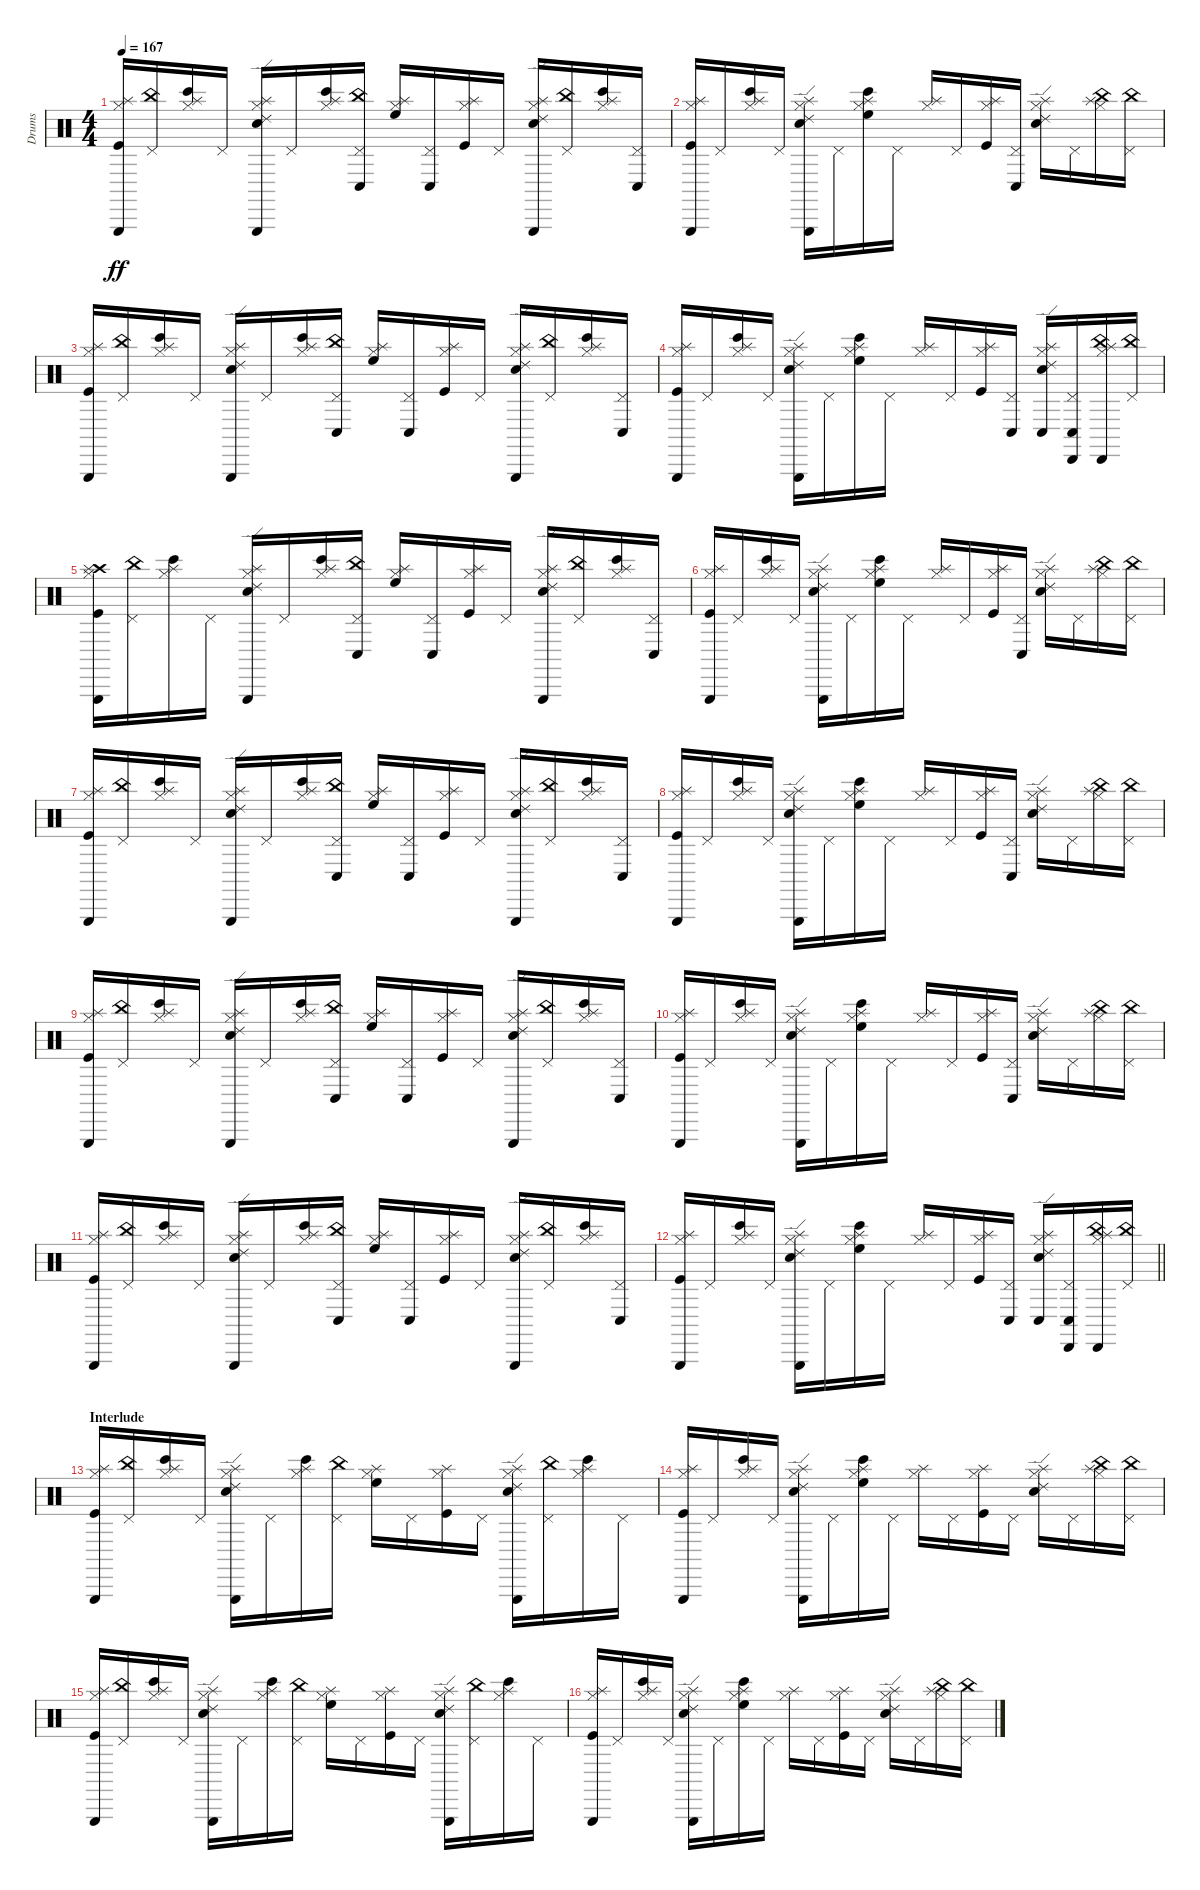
\track ("Drums" "Drums") {instrument percussion}
\staff {score}
\articulation defaults
\ts (4 4)
\tempo 167
\clef neutral
\ks c
("Kick (hit)" "Hi-Hat (closed)" "Splash (hit)" "Triangle (hit)").16{dy ff} ("Pedal Hi-Hat (hit)" "China (hit)").16 ("Hi-Hat (closed)" "Splash (hit)" "Bongo High (hit)").16 "Pedal Hi-Hat (hit)".16 ("Electric Snare (hit)" "Hi-Hat (closed)" "Splash (hit)" "Ride (edge) 2" "Triangle (hit)").16 "Pedal Hi-Hat (hit)".16 ("Hi-Hat (closed)" "Splash (hit)" "Bongo High (hit)").16 ("Pedal Hi-Hat (hit)" "China (hit)" "Conga low (hit)").16 ("Hi-Hat (closed)" "High Floor Tom (hit)" "Splash (hit)").16 ("Pedal Hi-Hat (hit)" "Conga low (hit)").16 ("Kick (hit)" "Hi-Hat (closed)" "Splash (hit)").16 "Pedal Hi-Hat (hit)".16 ("Electric Snare (hit)" "Hi-Hat (closed)" "Splash (hit)" "Ride (edge) 2" "Triangle (hit)").16 ("Pedal Hi-Hat (hit)" "China (hit)").16 ("Hi-Hat (closed)" "Splash (hit)" "Bongo High (hit)").16 ("Pedal Hi-Hat (hit)" "Conga low (hit)").16 |
("Kick (hit)" "Hi-Hat (closed)" "Splash (hit)" "Triangle (hit)").16 "Pedal Hi-Hat (hit)".16 ("Hi-Hat (closed)" "Splash (hit)" "Bongo High (hit)").16 "Pedal Hi-Hat (hit)".16 ("Electric Snare (hit)" "Hi-Hat (closed)" "Splash (hit)" "Ride (edge) 2" "Triangle (hit)").16 "Pedal Hi-Hat (hit)".16 ("Hi-Hat (closed)" "High Floor Tom (hit)" "Splash (hit)" "Bongo High (hit)").16 "Pedal Hi-Hat (hit)".16 ("Hi-Hat (closed)" "Splash (hit)").16 "Pedal Hi-Hat (hit)".16 ("Kick (hit)" "Hi-Hat (closed)" "Splash (hit)").16 ("Pedal Hi-Hat (hit)" "Conga low (hit)").16 ("Electric Snare (hit)" "Hi-Hat (closed)" "Splash (hit)" "Ride (edge) 2").16 "Pedal Hi-Hat (hit)".16 ("Hi-Hat (closed)" "China (hit)" "Splash (hit)").16 ("Pedal Hi-Hat (hit)" "China (hit)").16 |
("Kick (hit)" "Hi-Hat (closed)" "Splash (hit)" "Triangle (hit)").16 ("Pedal Hi-Hat (hit)" "China (hit)").16 ("Hi-Hat (closed)" "Splash (hit)" "Bongo High (hit)").16 "Pedal Hi-Hat (hit)".16 ("Electric Snare (hit)" "Hi-Hat (closed)" "Splash (hit)" "Ride (edge) 2" "Triangle (hit)").16 "Pedal Hi-Hat (hit)".16 ("Hi-Hat (closed)" "Splash (hit)" "Bongo High (hit)").16 ("Pedal Hi-Hat (hit)" "China (hit)" "Conga low (hit)").16 ("Hi-Hat (closed)" "High Floor Tom (hit)" "Splash (hit)").16 ("Pedal Hi-Hat (hit)" "Conga low (hit)").16 ("Kick (hit)" "Hi-Hat (closed)" "Splash (hit)").16 "Pedal Hi-Hat (hit)".16 ("Electric Snare (hit)" "Hi-Hat (closed)" "Splash (hit)" "Ride (edge) 2" "Triangle (hit)").16 ("Pedal Hi-Hat (hit)" "China (hit)").16 ("Hi-Hat (closed)" "Splash (hit)" "Bongo High (hit)").16 ("Pedal Hi-Hat (hit)" "Conga low (hit)").16 |
("Kick (hit)" "Hi-Hat (closed)" "Splash (hit)" "Triangle (hit)").16 "Pedal Hi-Hat (hit)".16 ("Hi-Hat (closed)" "Splash (hit)" "Bongo High (hit)").16 "Pedal Hi-Hat (hit)".16 ("Electric Snare (hit)" "Hi-Hat (closed)" "Splash (hit)" "Ride (edge) 2" "Triangle (hit)").16 "Pedal Hi-Hat (hit)".16 ("Hi-Hat (closed)" "High Floor Tom (hit)" "Splash (hit)" "Bongo High (hit)").16 "Pedal Hi-Hat (hit)".16 ("Hi-Hat (closed)" "Splash (hit)").16 "Pedal Hi-Hat (hit)".16 ("Kick (hit)" "Hi-Hat (closed)" "Splash (hit)").16 ("Pedal Hi-Hat (hit)" "Conga low (hit)").16 ("Electric Snare (hit)" "Hi-Hat (closed)" "Splash (hit)" "Ride (edge) 2" "Conga low (hit)").16 ("Pedal Hi-Hat (hit)" "Conga low (hit)" "Cabasa (hit)").16 ("Hi-Hat (closed)" "China (hit)" "Splash (hit)" "Cabasa (hit)").16 ("Pedal Hi-Hat (hit)" "China (hit)").16 |
("Kick (hit)" "Hi-Hat (closed)" "Crash high (hit)" "Splash (hit)" "Triangle (hit)").16 ("Pedal Hi-Hat (hit)" "China (hit)").16 ("Hi-Hat (closed)" "Splash (hit)" "Bongo High (hit)").16 "Pedal Hi-Hat (hit)".16 ("Electric Snare (hit)" "Hi-Hat (closed)" "Splash (hit)" "Ride (edge) 2" "Triangle (hit)").16 "Pedal Hi-Hat (hit)".16 ("Hi-Hat (closed)" "Splash (hit)" "Bongo High (hit)").16 ("Pedal Hi-Hat (hit)" "China (hit)" "Conga low (hit)").16 ("Hi-Hat (closed)" "High Floor Tom (hit)" "Splash (hit)").16 ("Pedal Hi-Hat (hit)" "Conga low (hit)").16 ("Kick (hit)" "Hi-Hat (closed)" "Splash (hit)").16 "Pedal Hi-Hat (hit)".16 ("Electric Snare (hit)" "Hi-Hat (closed)" "Splash (hit)" "Ride (edge) 2" "Triangle (hit)").16 ("Pedal Hi-Hat (hit)" "China (hit)").16 ("Hi-Hat (closed)" "Splash (hit)" "Bongo High (hit)").16 ("Pedal Hi-Hat (hit)" "Conga low (hit)").16 |
("Kick (hit)" "Hi-Hat (closed)" "Splash (hit)" "Triangle (hit)").16 "Pedal Hi-Hat (hit)".16 ("Hi-Hat (closed)" "Splash (hit)" "Bongo High (hit)").16 "Pedal Hi-Hat (hit)".16 ("Electric Snare (hit)" "Hi-Hat (closed)" "Splash (hit)" "Ride (edge) 2" "Triangle (hit)").16 "Pedal Hi-Hat (hit)".16 ("Hi-Hat (closed)" "High Floor Tom (hit)" "Splash (hit)" "Bongo High (hit)").16 "Pedal Hi-Hat (hit)".16 ("Hi-Hat (closed)" "Splash (hit)").16 "Pedal Hi-Hat (hit)".16 ("Kick (hit)" "Hi-Hat (closed)" "Splash (hit)").16 ("Pedal Hi-Hat (hit)" "Conga low (hit)").16 ("Electric Snare (hit)" "Hi-Hat (closed)" "Splash (hit)" "Ride (edge) 2").16 "Pedal Hi-Hat (hit)".16 ("Hi-Hat (closed)" "China (hit)" "Splash (hit)").16 ("Pedal Hi-Hat (hit)" "China (hit)").16 |
("Kick (hit)" "Hi-Hat (closed)" "Splash (hit)" "Triangle (hit)").16 ("Pedal Hi-Hat (hit)" "China (hit)").16 ("Hi-Hat (closed)" "Splash (hit)" "Bongo High (hit)").16 "Pedal Hi-Hat (hit)".16 ("Electric Snare (hit)" "Hi-Hat (closed)" "Splash (hit)" "Ride (edge) 2" "Triangle (hit)").16 "Pedal Hi-Hat (hit)".16 ("Hi-Hat (closed)" "Splash (hit)" "Bongo High (hit)").16 ("Pedal Hi-Hat (hit)" "China (hit)" "Conga low (hit)").16 ("Hi-Hat (closed)" "High Floor Tom (hit)" "Splash (hit)").16 ("Pedal Hi-Hat (hit)" "Conga low (hit)").16 ("Kick (hit)" "Hi-Hat (closed)" "Splash (hit)").16 "Pedal Hi-Hat (hit)".16 ("Electric Snare (hit)" "Hi-Hat (closed)" "Splash (hit)" "Ride (edge) 2" "Triangle (hit)").16 ("Pedal Hi-Hat (hit)" "China (hit)").16 ("Hi-Hat (closed)" "Splash (hit)" "Bongo High (hit)").16 ("Pedal Hi-Hat (hit)" "Conga low (hit)").16 |
("Kick (hit)" "Hi-Hat (closed)" "Splash (hit)" "Triangle (hit)").16 "Pedal Hi-Hat (hit)".16 ("Hi-Hat (closed)" "Splash (hit)" "Bongo High (hit)").16 "Pedal Hi-Hat (hit)".16 ("Electric Snare (hit)" "Hi-Hat (closed)" "Splash (hit)" "Ride (edge) 2" "Triangle (hit)").16 "Pedal Hi-Hat (hit)".16 ("Hi-Hat (closed)" "High Floor Tom (hit)" "Splash (hit)" "Bongo High (hit)").16 "Pedal Hi-Hat (hit)".16 ("Hi-Hat (closed)" "Splash (hit)").16 "Pedal Hi-Hat (hit)".16 ("Kick (hit)" "Hi-Hat (closed)" "Splash (hit)").16 ("Pedal Hi-Hat (hit)" "Conga low (hit)").16 ("Electric Snare (hit)" "Hi-Hat (closed)" "Splash (hit)" "Ride (edge) 2").16 "Pedal Hi-Hat (hit)".16 ("Hi-Hat (closed)" "China (hit)" "Splash (hit)").16 ("Pedal Hi-Hat (hit)" "China (hit)").16 |
("Kick (hit)" "Hi-Hat (closed)" "Splash (hit)" "Triangle (hit)").16 ("Pedal Hi-Hat (hit)" "China (hit)").16 ("Hi-Hat (closed)" "Splash (hit)" "Bongo High (hit)").16 "Pedal Hi-Hat (hit)".16 ("Electric Snare (hit)" "Hi-Hat (closed)" "Splash (hit)" "Ride (edge) 2" "Triangle (hit)").16 "Pedal Hi-Hat (hit)".16 ("Hi-Hat (closed)" "Splash (hit)" "Bongo High (hit)").16 ("Pedal Hi-Hat (hit)" "China (hit)" "Conga low (hit)").16 ("Hi-Hat (closed)" "High Floor Tom (hit)" "Splash (hit)").16 ("Pedal Hi-Hat (hit)" "Conga low (hit)").16 ("Kick (hit)" "Hi-Hat (closed)" "Splash (hit)").16 "Pedal Hi-Hat (hit)".16 ("Electric Snare (hit)" "Hi-Hat (closed)" "Splash (hit)" "Ride (edge) 2" "Triangle (hit)").16 ("Pedal Hi-Hat (hit)" "China (hit)").16 ("Hi-Hat (closed)" "Splash (hit)" "Bongo High (hit)").16 ("Pedal Hi-Hat (hit)" "Conga low (hit)").16 |
("Kick (hit)" "Hi-Hat (closed)" "Splash (hit)" "Triangle (hit)").16 "Pedal Hi-Hat (hit)".16 ("Hi-Hat (closed)" "Splash (hit)" "Bongo High (hit)").16 "Pedal Hi-Hat (hit)".16 ("Electric Snare (hit)" "Hi-Hat (closed)" "Splash (hit)" "Ride (edge) 2" "Triangle (hit)").16 "Pedal Hi-Hat (hit)".16 ("Hi-Hat (closed)" "High Floor Tom (hit)" "Splash (hit)" "Bongo High (hit)").16 "Pedal Hi-Hat (hit)".16 ("Hi-Hat (closed)" "Splash (hit)").16 "Pedal Hi-Hat (hit)".16 ("Kick (hit)" "Hi-Hat (closed)" "Splash (hit)").16 ("Pedal Hi-Hat (hit)" "Conga low (hit)").16 ("Electric Snare (hit)" "Hi-Hat (closed)" "Splash (hit)" "Ride (edge) 2").16 "Pedal Hi-Hat (hit)".16 ("Hi-Hat (closed)" "China (hit)" "Splash (hit)").16 ("Pedal Hi-Hat (hit)" "China (hit)").16 |
("Kick (hit)" "Hi-Hat (closed)" "Splash (hit)" "Triangle (hit)").16 ("Pedal Hi-Hat (hit)" "China (hit)").16 ("Hi-Hat (closed)" "Splash (hit)" "Bongo High (hit)").16 "Pedal Hi-Hat (hit)".16 ("Electric Snare (hit)" "Hi-Hat (closed)" "Splash (hit)" "Ride (edge) 2" "Triangle (hit)").16 "Pedal Hi-Hat (hit)".16 ("Hi-Hat (closed)" "Splash (hit)" "Bongo High (hit)").16 ("Pedal Hi-Hat (hit)" "China (hit)" "Conga low (hit)").16 ("Hi-Hat (closed)" "High Floor Tom (hit)" "Splash (hit)").16 ("Pedal Hi-Hat (hit)" "Conga low (hit)").16 ("Kick (hit)" "Hi-Hat (closed)" "Splash (hit)").16 "Pedal Hi-Hat (hit)".16 ("Electric Snare (hit)" "Hi-Hat (closed)" "Splash (hit)" "Ride (edge) 2" "Triangle (hit)").16 ("Pedal Hi-Hat (hit)" "China (hit)").16 ("Hi-Hat (closed)" "Splash (hit)" "Bongo High (hit)").16 ("Pedal Hi-Hat (hit)" "Conga low (hit)").16 |
\barLineRight lightlight
("Kick (hit)" "Hi-Hat (closed)" "Splash (hit)" "Triangle (hit)").16 "Pedal Hi-Hat (hit)".16 ("Hi-Hat (closed)" "Splash (hit)" "Bongo High (hit)").16 "Pedal Hi-Hat (hit)".16 ("Electric Snare (hit)" "Hi-Hat (closed)" "Splash (hit)" "Ride (edge) 2" "Triangle (hit)").16 "Pedal Hi-Hat (hit)".16 ("Hi-Hat (closed)" "High Floor Tom (hit)" "Splash (hit)" "Bongo High (hit)").16 "Pedal Hi-Hat (hit)".16 ("Hi-Hat (closed)" "Splash (hit)").16 "Pedal Hi-Hat (hit)".16 ("Kick (hit)" "Hi-Hat (closed)" "Splash (hit)").16 ("Pedal Hi-Hat (hit)" "Conga low (hit)").16 ("Electric Snare (hit)" "Hi-Hat (closed)" "Splash (hit)" "Ride (edge) 2" "Conga low (hit)").16 ("Pedal Hi-Hat (hit)" "Conga low (hit)" "Cabasa (hit)").16 ("Hi-Hat (closed)" "China (hit)" "Splash (hit)" "Cabasa (hit)").16 ("Pedal Hi-Hat (hit)" "China (hit)").16 |
\section ("" "Interlude")
("Kick (hit)" "Hi-Hat (closed)" "Splash (hit)" "Triangle (hit)").16 ("Pedal Hi-Hat (hit)" "China (hit)").16 ("Hi-Hat (closed)" "Splash (hit)" "Bongo High (hit)").16 "Pedal Hi-Hat (hit)".16 ("Electric Snare (hit)" "Hi-Hat (closed)" "Splash (hit)" "Ride (edge) 2" "Triangle (hit)").16 "Pedal Hi-Hat (hit)".16 ("Hi-Hat (closed)" "Splash (hit)" "Bongo High (hit)").16 ("Pedal Hi-Hat (hit)" "China (hit)").16 ("Hi-Hat (closed)" "High Floor Tom (hit)" "Splash (hit)").16 "Pedal Hi-Hat (hit)".16 ("Kick (hit)" "Hi-Hat (closed)" "Splash (hit)").16 "Pedal Hi-Hat (hit)".16 ("Electric Snare (hit)" "Hi-Hat (closed)" "Splash (hit)" "Ride (edge) 2" "Triangle (hit)").16 ("Pedal Hi-Hat (hit)" "China (hit)").16 ("Hi-Hat (closed)" "Splash (hit)" "Bongo High (hit)").16 "Pedal Hi-Hat (hit)".16 |
("Kick (hit)" "Hi-Hat (closed)" "Splash (hit)" "Triangle (hit)").16 "Pedal Hi-Hat (hit)".16 ("Hi-Hat (closed)" "Splash (hit)" "Bongo High (hit)").16 "Pedal Hi-Hat (hit)".16 ("Electric Snare (hit)" "Hi-Hat (closed)" "Splash (hit)" "Ride (edge) 2" "Triangle (hit)").16 "Pedal Hi-Hat (hit)".16 ("Hi-Hat (closed)" "High Floor Tom (hit)" "Splash (hit)" "Bongo High (hit)").16 "Pedal Hi-Hat (hit)".16 ("Hi-Hat (closed)" "Splash (hit)").16 "Pedal Hi-Hat (hit)".16 ("Kick (hit)" "Hi-Hat (closed)" "Splash (hit)").16 "Pedal Hi-Hat (hit)".16 ("Electric Snare (hit)" "Hi-Hat (closed)" "Splash (hit)" "Ride (edge) 2").16 "Pedal Hi-Hat (hit)".16 ("Hi-Hat (closed)" "China (hit)" "Splash (hit)").16 ("Pedal Hi-Hat (hit)" "China (hit)").16 |
("Kick (hit)" "Hi-Hat (closed)" "Splash (hit)" "Triangle (hit)").16 ("Pedal Hi-Hat (hit)" "China (hit)").16 ("Hi-Hat (closed)" "Splash (hit)" "Bongo High (hit)").16 "Pedal Hi-Hat (hit)".16 ("Electric Snare (hit)" "Hi-Hat (closed)" "Splash (hit)" "Ride (edge) 2" "Triangle (hit)").16 "Pedal Hi-Hat (hit)".16 ("Hi-Hat (closed)" "Splash (hit)" "Bongo High (hit)").16 ("Pedal Hi-Hat (hit)" "China (hit)").16 ("Hi-Hat (closed)" "High Floor Tom (hit)" "Splash (hit)").16 "Pedal Hi-Hat (hit)".16 ("Kick (hit)" "Hi-Hat (closed)" "Splash (hit)").16 "Pedal Hi-Hat (hit)".16 ("Electric Snare (hit)" "Hi-Hat (closed)" "Splash (hit)" "Ride (edge) 2" "Triangle (hit)").16 ("Pedal Hi-Hat (hit)" "China (hit)").16 ("Hi-Hat (closed)" "Splash (hit)" "Bongo High (hit)").16 "Pedal Hi-Hat (hit)".16 |
("Kick (hit)" "Hi-Hat (closed)" "Splash (hit)" "Triangle (hit)").16 "Pedal Hi-Hat (hit)".16 ("Hi-Hat (closed)" "Splash (hit)" "Bongo High (hit)").16 "Pedal Hi-Hat (hit)".16 ("Electric Snare (hit)" "Hi-Hat (closed)" "Splash (hit)" "Ride (edge) 2" "Triangle (hit)").16 "Pedal Hi-Hat (hit)".16 ("Hi-Hat (closed)" "High Floor Tom (hit)" "Splash (hit)" "Bongo High (hit)").16 "Pedal Hi-Hat (hit)".16 ("Hi-Hat (closed)" "Splash (hit)").16 "Pedal Hi-Hat (hit)".16 ("Kick (hit)" "Hi-Hat (closed)" "Splash (hit)").16 "Pedal Hi-Hat (hit)".16 ("Electric Snare (hit)" "Hi-Hat (closed)" "Splash (hit)" "Ride (edge) 2").16 "Pedal Hi-Hat (hit)".16 ("Hi-Hat (closed)" "China (hit)" "Splash (hit)").16 ("Pedal Hi-Hat (hit)" "China (hit)").16
